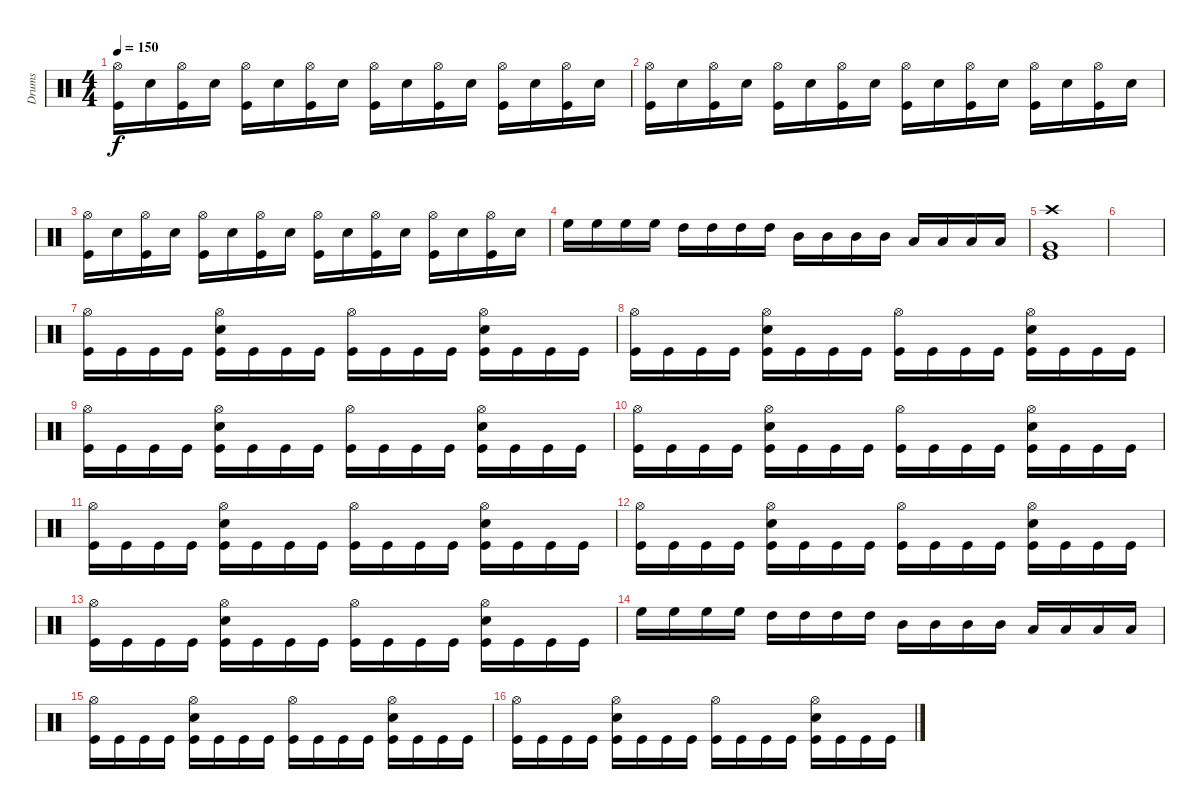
\track ("Drums" "Drums") {instrument percussion}
\staff {score}
\articulation defaults
\ts (4 4)
\tempo 150
\clef neutral
\ks c
("Hi-Hat (open)" "Kick (hit)").16{dy f} "Snare (hit) 2".16 ("Hi-Hat (open)" "Kick (hit)").16 "Snare (hit) 2".16 ("Hi-Hat (open)" "Kick (hit)").16 "Snare (hit) 2".16 ("Hi-Hat (open)" "Kick (hit)").16 "Snare (hit) 2".16 ("Hi-Hat (open)" "Kick (hit)").16 "Snare (hit) 2".16 ("Hi-Hat (open)" "Kick (hit)").16 "Snare (hit) 2".16 ("Hi-Hat (open)" "Kick (hit)").16 "Snare (hit) 2".16 ("Hi-Hat (open)" "Kick (hit)").16 "Snare (hit) 2".16 |
("Hi-Hat (open)" "Kick (hit)").16 "Snare (hit) 2".16 ("Hi-Hat (open)" "Kick (hit)").16 "Snare (hit) 2".16 ("Hi-Hat (open)" "Kick (hit)").16 "Snare (hit) 2".16 ("Hi-Hat (open)" "Kick (hit)").16 "Snare (hit) 2".16 ("Hi-Hat (open)" "Kick (hit)").16 "Snare (hit) 2".16 ("Hi-Hat (open)" "Kick (hit)").16 "Snare (hit) 2".16 ("Hi-Hat (open)" "Kick (hit)").16 "Snare (hit) 2".16 ("Hi-Hat (open)" "Kick (hit)").16 "Snare (hit) 2".16 |
("Hi-Hat (open)" "Kick (hit)").16 "Snare (hit) 2".16 ("Hi-Hat (open)" "Kick (hit)").16 "Snare (hit) 2".16 ("Hi-Hat (open)" "Kick (hit)").16 "Snare (hit) 2".16 ("Hi-Hat (open)" "Kick (hit)").16 "Snare (hit) 2".16 ("Hi-Hat (open)" "Kick (hit)").16 "Snare (hit) 2".16 ("Hi-Hat (open)" "Kick (hit)").16 "Snare (hit) 2".16 ("Hi-Hat (open)" "Kick (hit)").16 "Snare (hit) 2".16 ("Hi-Hat (open)" "Kick (hit)").16 "Snare (hit) 2".16 |
"High Floor Tom (hit)".16 "High Floor Tom (hit)".16 "High Floor Tom (hit)".16 "High Floor Tom (hit)".16 "High Tom (hit)".16 "High Tom (hit)".16 "High Tom (hit)".16 "High Tom (hit)".16 "Mid Tom (hit)".16 "Mid Tom (hit)".16 "Mid Tom (hit)".16 "Mid Tom (hit)".16 "Low Tom (hit)".16 "Low Tom (hit)".16 "Low Tom (hit)".16 "Low Tom (hit)".16 |
("Crash high (hit)" "Very Low Tom (hit)" "Kick (hit)").1 |
|
("Hi-Hat (open)" "Kick (hit)").16 "Kick (hit)".16 "Kick (hit)".16 "Kick (hit)".16 ("Hi-Hat (open)" "Snare (hit) 2" "Kick (hit)").16 "Kick (hit)".16 "Kick (hit)".16 "Kick (hit)".16 ("Hi-Hat (open)" "Kick (hit)").16 "Kick (hit)".16 "Kick (hit)".16 "Kick (hit)".16 ("Hi-Hat (open)" "Snare (hit) 2" "Kick (hit)").16 "Kick (hit)".16 "Kick (hit)".16 "Kick (hit)".16 |
("Hi-Hat (open)" "Kick (hit)").16 "Kick (hit)".16 "Kick (hit)".16 "Kick (hit)".16 ("Hi-Hat (open)" "Snare (hit) 2" "Kick (hit)").16 "Kick (hit)".16 "Kick (hit)".16 "Kick (hit)".16 ("Hi-Hat (open)" "Kick (hit)").16 "Kick (hit)".16 "Kick (hit)".16 "Kick (hit)".16 ("Hi-Hat (open)" "Snare (hit) 2" "Kick (hit)").16 "Kick (hit)".16 "Kick (hit)".16 "Kick (hit)".16 |
("Hi-Hat (open)" "Kick (hit)").16 "Kick (hit)".16 "Kick (hit)".16 "Kick (hit)".16 ("Hi-Hat (open)" "Snare (hit) 2" "Kick (hit)").16 "Kick (hit)".16 "Kick (hit)".16 "Kick (hit)".16 ("Hi-Hat (open)" "Kick (hit)").16 "Kick (hit)".16 "Kick (hit)".16 "Kick (hit)".16 ("Hi-Hat (open)" "Snare (hit) 2" "Kick (hit)").16 "Kick (hit)".16 "Kick (hit)".16 "Kick (hit)".16 |
("Hi-Hat (open)" "Kick (hit)").16 "Kick (hit)".16 "Kick (hit)".16 "Kick (hit)".16 ("Hi-Hat (open)" "Snare (hit) 2" "Kick (hit)").16 "Kick (hit)".16 "Kick (hit)".16 "Kick (hit)".16 ("Hi-Hat (open)" "Kick (hit)").16 "Kick (hit)".16 "Kick (hit)".16 "Kick (hit)".16 ("Hi-Hat (open)" "Snare (hit) 2" "Kick (hit)").16 "Kick (hit)".16 "Kick (hit)".16 "Kick (hit)".16 |
("Hi-Hat (open)" "Kick (hit)").16 "Kick (hit)".16 "Kick (hit)".16 "Kick (hit)".16 ("Hi-Hat (open)" "Snare (hit) 2" "Kick (hit)").16 "Kick (hit)".16 "Kick (hit)".16 "Kick (hit)".16 ("Hi-Hat (open)" "Kick (hit)").16 "Kick (hit)".16 "Kick (hit)".16 "Kick (hit)".16 ("Hi-Hat (open)" "Snare (hit) 2" "Kick (hit)").16 "Kick (hit)".16 "Kick (hit)".16 "Kick (hit)".16 |
("Hi-Hat (open)" "Kick (hit)").16 "Kick (hit)".16 "Kick (hit)".16 "Kick (hit)".16 ("Hi-Hat (open)" "Snare (hit) 2" "Kick (hit)").16 "Kick (hit)".16 "Kick (hit)".16 "Kick (hit)".16 ("Hi-Hat (open)" "Kick (hit)").16 "Kick (hit)".16 "Kick (hit)".16 "Kick (hit)".16 ("Hi-Hat (open)" "Snare (hit) 2" "Kick (hit)").16 "Kick (hit)".16 "Kick (hit)".16 "Kick (hit)".16 |
("Hi-Hat (open)" "Kick (hit)").16 "Kick (hit)".16 "Kick (hit)".16 "Kick (hit)".16 ("Hi-Hat (open)" "Snare (hit) 2" "Kick (hit)").16 "Kick (hit)".16 "Kick (hit)".16 "Kick (hit)".16 ("Hi-Hat (open)" "Kick (hit)").16 "Kick (hit)".16 "Kick (hit)".16 "Kick (hit)".16 ("Hi-Hat (open)" "Snare (hit) 2" "Kick (hit)").16 "Kick (hit)".16 "Kick (hit)".16 "Kick (hit)".16 |
"High Floor Tom (hit)".16 "High Floor Tom (hit)".16 "High Floor Tom (hit)".16 "High Floor Tom (hit)".16 "High Tom (hit)".16 "High Tom (hit)".16 "High Tom (hit)".16 "High Tom (hit)".16 "Mid Tom (hit)".16 "Mid Tom (hit)".16 "Mid Tom (hit)".16 "Mid Tom (hit)".16 "Low Tom (hit)".16 "Low Tom (hit)".16 "Low Tom (hit)".16 "Low Tom (hit)".16 |
("Hi-Hat (open)" "Kick (hit)").16 "Kick (hit)".16 "Kick (hit)".16 "Kick (hit)".16 ("Hi-Hat (open)" "Snare (hit) 2" "Kick (hit)").16 "Kick (hit)".16 "Kick (hit)".16 "Kick (hit)".16 ("Hi-Hat (open)" "Kick (hit)").16 "Kick (hit)".16 "Kick (hit)".16 "Kick (hit)".16 ("Hi-Hat (open)" "Snare (hit) 2" "Kick (hit)").16 "Kick (hit)".16 "Kick (hit)".16 "Kick (hit)".16 |
("Hi-Hat (open)" "Kick (hit)").16 "Kick (hit)".16 "Kick (hit)".16 "Kick (hit)".16 ("Hi-Hat (open)" "Snare (hit) 2" "Kick (hit)").16 "Kick (hit)".16 "Kick (hit)".16 "Kick (hit)".16 ("Hi-Hat (open)" "Kick (hit)").16 "Kick (hit)".16 "Kick (hit)".16 "Kick (hit)".16 ("Hi-Hat (open)" "Snare (hit) 2" "Kick (hit)").16 "Kick (hit)".16 "Kick (hit)".16 "Kick (hit)".16
